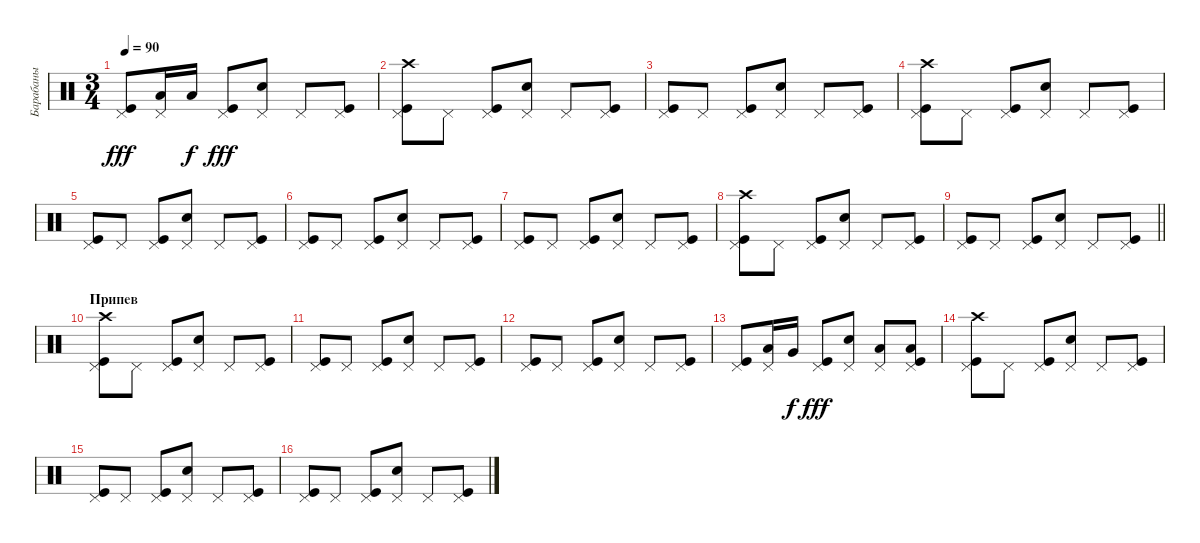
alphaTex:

\track ("Барабаны" "Барабаны") {instrument percussion}
\staff {score}
\articulation defaults
\ts (3 4)
\tempo 90
\clef neutral
\ks c
("Kick (hit)" "Pedal Hi-Hat (hit)").8{dy fff} ("Pedal Hi-Hat (hit)" "Low Tom (hit)").16 "Low Floor Tom (hit)".16{dy f} ("Kick (hit)" "Pedal Hi-Hat (hit)").8{dy fff} ("Snare (hit) 2" "Pedal Hi-Hat (hit)").8 "Pedal Hi-Hat (hit)".8 ("Kick (hit)" "Pedal Hi-Hat (hit)").8 |
("Kick (hit)" "Pedal Hi-Hat (hit)" "Crash high (hit)").8 "Pedal Hi-Hat (hit)".8 ("Kick (hit)" "Pedal Hi-Hat (hit)").8 ("Snare (hit) 2" "Pedal Hi-Hat (hit)").8 "Pedal Hi-Hat (hit)".8 ("Kick (hit)" "Pedal Hi-Hat (hit)").8 |
("Kick (hit)" "Pedal Hi-Hat (hit)").8 "Pedal Hi-Hat (hit)".8 ("Kick (hit)" "Pedal Hi-Hat (hit)").8 ("Snare (hit) 2" "Pedal Hi-Hat (hit)").8 "Pedal Hi-Hat (hit)".8 ("Kick (hit)" "Pedal Hi-Hat (hit)").8 |
("Kick (hit)" "Pedal Hi-Hat (hit)" "Crash high (hit)").8 "Pedal Hi-Hat (hit)".8 ("Kick (hit)" "Pedal Hi-Hat (hit)").8 ("Snare (hit) 2" "Pedal Hi-Hat (hit)").8 "Pedal Hi-Hat (hit)".8 ("Kick (hit)" "Pedal Hi-Hat (hit)").8 |
("Kick (hit)" "Pedal Hi-Hat (hit)").8 "Pedal Hi-Hat (hit)".8 ("Kick (hit)" "Pedal Hi-Hat (hit)").8 ("Snare (hit) 2" "Pedal Hi-Hat (hit)").8 "Pedal Hi-Hat (hit)".8 ("Kick (hit)" "Pedal Hi-Hat (hit)").8 |
("Kick (hit)" "Pedal Hi-Hat (hit)").8 "Pedal Hi-Hat (hit)".8 ("Kick (hit)" "Pedal Hi-Hat (hit)").8 ("Snare (hit) 2" "Pedal Hi-Hat (hit)").8 "Pedal Hi-Hat (hit)".8 ("Kick (hit)" "Pedal Hi-Hat (hit)").8 |
("Kick (hit)" "Pedal Hi-Hat (hit)").8 "Pedal Hi-Hat (hit)".8 ("Kick (hit)" "Pedal Hi-Hat (hit)").8 ("Snare (hit) 2" "Pedal Hi-Hat (hit)").8 "Pedal Hi-Hat (hit)".8 ("Kick (hit)" "Pedal Hi-Hat (hit)").8 |
("Kick (hit)" "Pedal Hi-Hat (hit)" "Crash high (hit)").8 "Pedal Hi-Hat (hit)".8 ("Kick (hit)" "Pedal Hi-Hat (hit)").8 ("Snare (hit) 2" "Pedal Hi-Hat (hit)").8 "Pedal Hi-Hat (hit)".8 ("Kick (hit)" "Pedal Hi-Hat (hit)").8 |
\barLineRight lightlight
("Kick (hit)" "Pedal Hi-Hat (hit)").8 "Pedal Hi-Hat (hit)".8 ("Kick (hit)" "Pedal Hi-Hat (hit)").8 ("Snare (hit) 2" "Pedal Hi-Hat (hit)").8 "Pedal Hi-Hat (hit)".8 ("Kick (hit)" "Pedal Hi-Hat (hit)").8 |
\section ("" "Припев")
("Kick (hit)" "Pedal Hi-Hat (hit)" "Crash high (hit)").8 "Pedal Hi-Hat (hit)".8 ("Kick (hit)" "Pedal Hi-Hat (hit)").8 ("Snare (hit) 2" "Pedal Hi-Hat (hit)").8 "Pedal Hi-Hat (hit)".8 ("Kick (hit)" "Pedal Hi-Hat (hit)").8 |
("Kick (hit)" "Pedal Hi-Hat (hit)").8 "Pedal Hi-Hat (hit)".8 ("Kick (hit)" "Pedal Hi-Hat (hit)").8 ("Snare (hit) 2" "Pedal Hi-Hat (hit)").8 "Pedal Hi-Hat (hit)".8 ("Kick (hit)" "Pedal Hi-Hat (hit)").8 |
("Kick (hit)" "Pedal Hi-Hat (hit)").8 "Pedal Hi-Hat (hit)".8 ("Kick (hit)" "Pedal Hi-Hat (hit)").8 ("Snare (hit) 2" "Pedal Hi-Hat (hit)").8 "Pedal Hi-Hat (hit)".8 ("Kick (hit)" "Pedal Hi-Hat (hit)").8 |
("Kick (hit)" "Pedal Hi-Hat (hit)").8 ("Pedal Hi-Hat (hit)" "Low Tom (hit)").16 "Very Low Tom (hit)".16{dy f} ("Kick (hit)" "Pedal Hi-Hat (hit)").8{dy fff} ("Snare (hit) 2" "Pedal Hi-Hat (hit)").8 ("Pedal Hi-Hat (hit)" "Low Floor Tom (hit)").8 ("Kick (hit)" "Pedal Hi-Hat (hit)" "Low Floor Tom (hit)").8 |
("Kick (hit)" "Pedal Hi-Hat (hit)" "Crash high (hit)").8 "Pedal Hi-Hat (hit)".8 ("Kick (hit)" "Pedal Hi-Hat (hit)").8 ("Snare (hit) 2" "Pedal Hi-Hat (hit)").8 "Pedal Hi-Hat (hit)".8 ("Kick (hit)" "Pedal Hi-Hat (hit)").8 |
("Kick (hit)" "Pedal Hi-Hat (hit)").8 "Pedal Hi-Hat (hit)".8 ("Kick (hit)" "Pedal Hi-Hat (hit)").8 ("Snare (hit) 2" "Pedal Hi-Hat (hit)").8 "Pedal Hi-Hat (hit)".8 ("Kick (hit)" "Pedal Hi-Hat (hit)").8 |
("Kick (hit)" "Pedal Hi-Hat (hit)").8 "Pedal Hi-Hat (hit)".8 ("Kick (hit)" "Pedal Hi-Hat (hit)").8 ("Snare (hit) 2" "Pedal Hi-Hat (hit)").8 "Pedal Hi-Hat (hit)".8 ("Kick (hit)" "Pedal Hi-Hat (hit)").8
